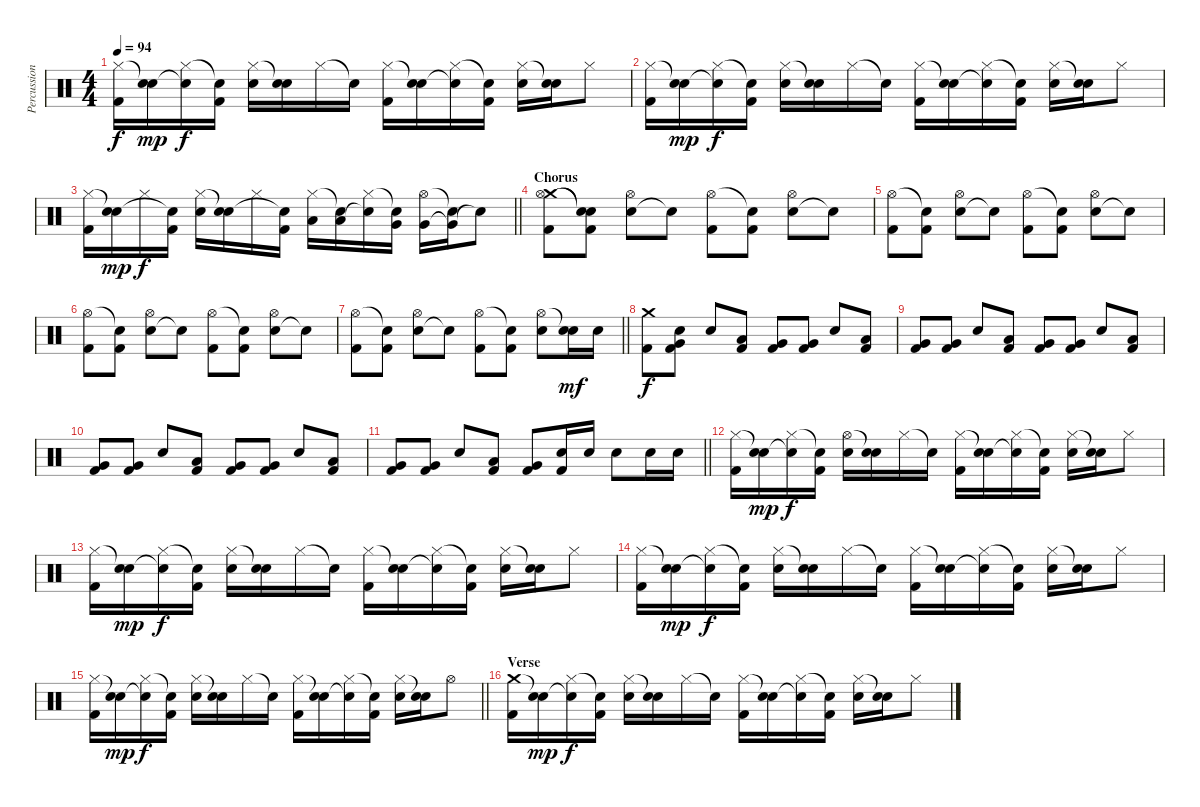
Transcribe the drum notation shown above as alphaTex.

\track ("Percussion" "Percussion") {instrument percussion}
\staff {score}
\articulation defaults
\ts (4 4)
\tempo 94
\clef neutral
\ks c
("Kick (hit) 2" "Hi-Hat (closed)").16{dy f} ("Electric Snare (hit)" "Snare (hit)"{t}).16{dy mp} ("Electric Snare (hit)"{t} "Hi-Hat (closed)").16{dy f} ("Kick (hit) 2" "Snare (hit)"{t}).16 ("Electric Snare (hit)" "Hi-Hat (closed)").16 ("Electric Snare (hit)" "Snare (hit)"{t}).16 "Hi-Hat (closed)".16 "Snare (hit)"{t}.16 ("Kick (hit) 2" "Hi-Hat (closed)").16 ("Electric Snare (hit)" "Snare (hit)"{t}).16 ("Electric Snare (hit)"{t} "Hi-Hat (closed)").16 ("Kick (hit) 2" "Snare (hit)"{t}).16 ("Electric Snare (hit)" "Hi-Hat (closed)").16 ("Electric Snare (hit)" "Snare (hit)"{t}).16 "Hi-Hat (closed)".8 |
("Kick (hit) 2" "Hi-Hat (closed)").16 ("Electric Snare (hit)" "Snare (hit)"{t}).16{dy mp} ("Electric Snare (hit)"{t} "Hi-Hat (closed)").16{dy f} ("Kick (hit) 2" "Snare (hit)"{t}).16 ("Electric Snare (hit)" "Hi-Hat (closed)").16 ("Electric Snare (hit)" "Snare (hit)"{t}).16 "Hi-Hat (closed)".16 "Snare (hit)"{t}.16 ("Kick (hit) 2" "Hi-Hat (closed)").16 ("Electric Snare (hit)" "Snare (hit)"{t}).16 ("Electric Snare (hit)"{t} "Hi-Hat (closed)").16 ("Kick (hit) 2" "Snare (hit)"{t}).16 ("Electric Snare (hit)" "Hi-Hat (closed)").16 ("Electric Snare (hit)" "Snare (hit)"{t}).16 "Hi-Hat (closed)".8 |
\barLineRight lightlight
("Kick (hit) 2" "Hi-Hat (closed)").16 ("Electric Snare (hit)" "Snare (hit)"{t}).16{dy mp} "Hi-Hat (closed)".16{dy f} ("Kick (hit) 2" "Snare (hit)"{t}).16 ("Electric Snare (hit)" "Hi-Hat (closed)").16 ("Electric Snare (hit)" "Snare (hit)"{t}).16 "Hi-Hat (closed)".16 ("Kick (hit) 2" "Snare (hit)"{t}).16 ("Low Tom (hit)" "Hi-Hat (closed)").16 ("Low Tom (hit)" "Snare (hit)"{t}).16 ("Electric Snare (hit)"{t} "Hi-Hat (closed)").16 ("Very Low Tom (hit)" "Snare (hit)"{t}).16 ("Very Low Tom (hit)" "Hi-Hat (open)").16 ("Very Low Tom (hit)"{t} "Snare (hit)"{t}).16 "Snare (hit)"{t}.8 |
\section ("" "Chorus")
("Kick (hit) 2" "Crash medium (hit)" "Hi-Hat (open)").8 ("Kick (hit) 2" "Snare (hit)"{t} "Snare (hit)"{t}).8 ("Electric Snare (hit)" "Hi-Hat (open)").8 "Snare (hit)"{t}.8 ("Kick (hit) 2" "Hi-Hat (open)").8 ("Kick (hit) 2" "Snare (hit)"{t}).8 ("Electric Snare (hit)" "Hi-Hat (open)").8 "Snare (hit)"{t}.8 |
("Kick (hit) 2" "Hi-Hat (open)").8 ("Kick (hit) 2" "Snare (hit)"{t}).8 ("Electric Snare (hit)" "Hi-Hat (open)").8 "Snare (hit)"{t}.8 ("Kick (hit) 2" "Hi-Hat (open)").8 ("Kick (hit) 2" "Snare (hit)"{t}).8 ("Electric Snare (hit)" "Hi-Hat (open)").8 "Snare (hit)"{t}.8 |
("Kick (hit) 2" "Hi-Hat (open)").8 ("Kick (hit) 2" "Snare (hit)"{t}).8 ("Electric Snare (hit)" "Hi-Hat (open)").8 "Snare (hit)"{t}.8 ("Kick (hit) 2" "Hi-Hat (open)").8 ("Kick (hit) 2" "Snare (hit)"{t}).8 ("Electric Snare (hit)" "Hi-Hat (open)").8 "Snare (hit)"{t}.8 |
\barLineRight lightlight
("Kick (hit) 2" "Hi-Hat (open)").8 ("Kick (hit) 2" "Snare (hit)"{t}).8 ("Electric Snare (hit)" "Hi-Hat (open)").8 "Snare (hit)"{t}.8 ("Kick (hit) 2" "Hi-Hat (open)").8 ("Kick (hit) 2" "Snare (hit)"{t}).8 ("Electric Snare (hit)" "Hi-Hat (open)").8 ("Electric Snare (hit)" "Snare (hit)"{t}).16{dy mf} "Electric Snare (hit)".16 |
("Kick (hit) 2" "Crash medium (hit)").8{dy f} ("Kick (hit) 2" "Very Low Tom (hit)" "Snare (hit)").8 "Electric Snare (hit)".8 ("Kick (hit) 2" "Low Tom (hit)").8 ("Kick (hit) 2" "Very Low Tom (hit)").8 ("Kick (hit) 2" "Very Low Tom (hit)").8 "Electric Snare (hit)".8 ("Kick (hit) 2" "Low Tom (hit)").8 |
("Kick (hit) 2" "Very Low Tom (hit)").8 ("Kick (hit) 2" "Very Low Tom (hit)").8 "Electric Snare (hit)".8 ("Kick (hit) 2" "Low Tom (hit)").8 ("Kick (hit) 2" "Very Low Tom (hit)").8 ("Kick (hit) 2" "Very Low Tom (hit)").8 "Electric Snare (hit)".8 ("Kick (hit) 2" "Low Tom (hit)").8 |
("Kick (hit) 2" "Very Low Tom (hit)").8 ("Kick (hit) 2" "Very Low Tom (hit)").8 "Electric Snare (hit)".8 ("Kick (hit) 2" "Low Tom (hit)").8 ("Kick (hit) 2" "Very Low Tom (hit)").8 ("Kick (hit) 2" "Very Low Tom (hit)").8 "Electric Snare (hit)".8 ("Kick (hit) 2" "Low Tom (hit)").8 |
\barLineRight lightlight
("Kick (hit) 2" "Very Low Tom (hit)").8 ("Kick (hit) 2" "Very Low Tom (hit)").8 "Electric Snare (hit)".8 ("Kick (hit) 2" "Low Tom (hit)").8 ("Kick (hit) 2" "Very Low Tom (hit)").8 ("Kick (hit) 2" "Electric Snare (hit)").16 "Electric Snare (hit)".16 "Electric Snare (hit)".8 "Electric Snare (hit)".16 "Electric Snare (hit)".16 |
("Kick (hit) 2" "Hi-Hat (closed)").16 ("Electric Snare (hit)" "Snare (hit)"{t}).16{dy mp} ("Electric Snare (hit)"{t} "Hi-Hat (closed)").16{dy f} ("Kick (hit) 2" "Snare (hit)"{t}).16 ("Electric Snare (hit)" "Hi-Hat (open)").16 ("Electric Snare (hit)" "Snare (hit)"{t}).16 "Hi-Hat (closed)".16 "Snare (hit)"{t}.16 ("Kick (hit) 2" "Hi-Hat (closed)").16 ("Electric Snare (hit)" "Snare (hit)"{t}).16 ("Electric Snare (hit)"{t} "Hi-Hat (closed)").16 ("Kick (hit) 2" "Snare (hit)"{t}).16 ("Electric Snare (hit)" "Hi-Hat (closed)").16 ("Electric Snare (hit)" "Snare (hit)"{t}).16 "Hi-Hat (closed)".8 |
("Kick (hit) 2" "Hi-Hat (closed)").16 ("Electric Snare (hit)" "Snare (hit)"{t}).16{dy mp} ("Electric Snare (hit)"{t} "Hi-Hat (closed)").16{dy f} ("Kick (hit) 2" "Snare (hit)"{t}).16 ("Electric Snare (hit)" "Hi-Hat (closed)").16 ("Electric Snare (hit)" "Snare (hit)"{t}).16 "Hi-Hat (closed)".16 "Snare (hit)"{t}.16 ("Kick (hit) 2" "Hi-Hat (closed)").16 ("Electric Snare (hit)" "Snare (hit)"{t}).16 ("Electric Snare (hit)"{t} "Hi-Hat (closed)").16 ("Kick (hit) 2" "Snare (hit)"{t}).16 ("Electric Snare (hit)" "Hi-Hat (closed)").16 ("Electric Snare (hit)" "Snare (hit)"{t}).16 "Hi-Hat (closed)".8 |
("Kick (hit) 2" "Hi-Hat (closed)").16 ("Electric Snare (hit)" "Snare (hit)"{t}).16{dy mp} ("Electric Snare (hit)"{t} "Hi-Hat (closed)").16{dy f} ("Kick (hit) 2" "Snare (hit)"{t}).16 ("Electric Snare (hit)" "Hi-Hat (closed)").16 ("Electric Snare (hit)" "Snare (hit)"{t}).16 "Hi-Hat (closed)".16 "Snare (hit)"{t}.16 ("Kick (hit) 2" "Hi-Hat (closed)").16 ("Electric Snare (hit)" "Snare (hit)"{t}).16 ("Electric Snare (hit)"{t} "Hi-Hat (closed)").16 ("Kick (hit) 2" "Snare (hit)"{t}).16 ("Electric Snare (hit)" "Hi-Hat (closed)").16 ("Electric Snare (hit)" "Snare (hit)"{t}).16 "Hi-Hat (closed)".8 |
\barLineRight lightlight
("Kick (hit) 2" "Hi-Hat (closed)").16 ("Electric Snare (hit)" "Snare (hit)"{t}).16{dy mp} ("Electric Snare (hit)"{t} "Hi-Hat (closed)").16{dy f} ("Kick (hit) 2" "Snare (hit)"{t}).16 ("Electric Snare (hit)" "Hi-Hat (closed)").16 ("Electric Snare (hit)" "Snare (hit)"{t}).16 "Hi-Hat (closed)".16 "Snare (hit)"{t}.16 ("Kick (hit) 2" "Hi-Hat (closed)").16 ("Electric Snare (hit)" "Snare (hit)"{t}).16 ("Electric Snare (hit)"{t} "Hi-Hat (closed)").16 ("Kick (hit) 2" "Snare (hit)"{t}).16 ("Electric Snare (hit)" "Hi-Hat (closed)").16 ("Electric Snare (hit)" "Snare (hit)"{t}).16 "Hi-Hat (open)".8 |
\section ("" "Verse")
("Kick (hit) 2" "Crash medium (hit)").16 ("Electric Snare (hit)" "Snare (hit)"{t}).16{dy mp} ("Electric Snare (hit)"{t} "Hi-Hat (closed)").16{dy f} ("Kick (hit) 2" "Snare (hit)"{t}).16 ("Electric Snare (hit)" "Hi-Hat (closed)").16 ("Electric Snare (hit)" "Snare (hit)"{t}).16 "Hi-Hat (closed)".16 "Snare (hit)"{t}.16 ("Kick (hit) 2" "Hi-Hat (closed)").16 ("Electric Snare (hit)" "Snare (hit)"{t}).16 ("Electric Snare (hit)"{t} "Hi-Hat (closed)").16 ("Kick (hit) 2" "Snare (hit)"{t}).16 ("Electric Snare (hit)" "Hi-Hat (closed)").16 ("Electric Snare (hit)" "Snare (hit)"{t}).16 "Hi-Hat (closed)".8
